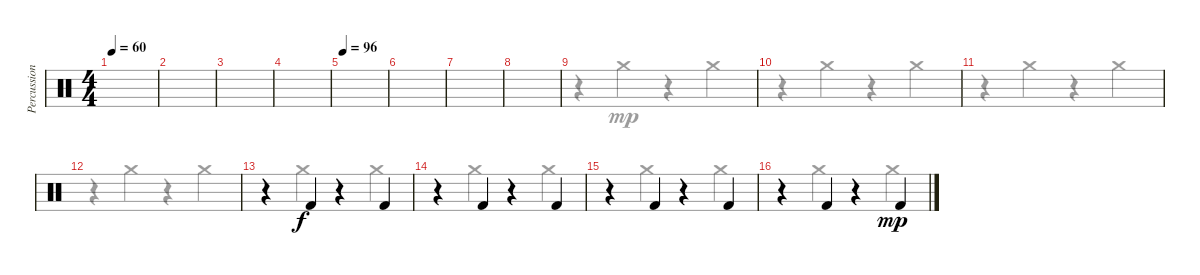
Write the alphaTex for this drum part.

\track ("Percussions" "Percussion") {instrument percussion}
\staff {score}
\articulation defaults
\voice
\ts (4 4)
\tempo 60
\clef neutral
\ks c
|
|
|
|
\tempo 96
|
|
|
|
|
|
|
|
r.4 "Kick (hit) 2".4 r.4 "Kick (hit) 2".4 |
r.4 "Kick (hit) 2".4 r.4 "Kick (hit) 2".4 |
r.4 "Kick (hit) 2".4 r.4 "Kick (hit) 2".4 |
r.4 "Kick (hit) 2".4{dy f} r.4 "Kick (hit) 2".4{dy mp}
\voice
\clef neutral
\ottava regular
\simile none
\ks c
|
|
|
|
|
|
|
|
r.4 "Crash medium (hit)".4 r.4 "Crash medium (hit)".4 |
r.4 "Crash medium (hit)".4 r.4 "Crash medium (hit)".4{dy mp} |
r.4 "Crash medium (hit)".4 r.4 "Crash medium (hit)".4 |
r.4 "Crash medium (hit)".4 r.4 "Crash medium (hit)".4 |
r.4 "Crash medium (hit)".4 r.4 "Crash medium (hit)".4 |
r.4 "Crash medium (hit)".4 r.4 "Crash medium (hit)".4 |
r.4 "Crash medium (hit)".4 r.4 "Crash medium (hit)".4 |
r.4 "Crash medium (hit)".4 r.4 "Crash medium (hit)".4
